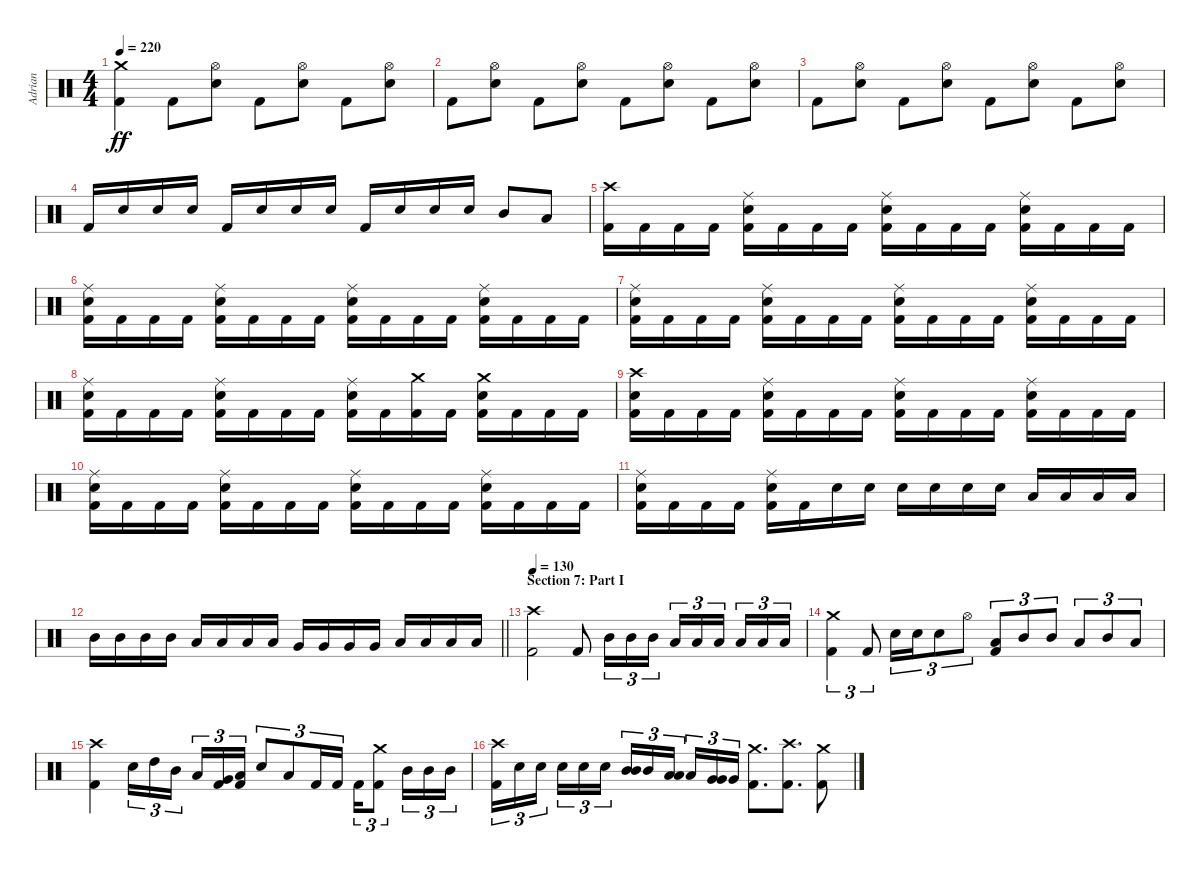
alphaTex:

\track ("Adrian" "Adrian") {instrument percussion}
\staff {score}
\articulation defaults
\ts (4 4)
\tempo 220
\clef neutral
\ks c
("Crash medium (hit)" "Kick (hit) 2").4{dy ff} "Kick (hit) 2".8 ("Hi-Hat (open)" "Electric Snare (hit)").8 "Kick (hit) 2".8 ("Hi-Hat (open)" "Electric Snare (hit)").8 "Kick (hit) 2".8 ("Hi-Hat (open)" "Electric Snare (hit)").8 |
"Kick (hit) 2".8 ("Hi-Hat (open)" "Electric Snare (hit)").8 "Kick (hit) 2".8 ("Hi-Hat (open)" "Electric Snare (hit)").8 "Kick (hit) 2".8 ("Hi-Hat (open)" "Electric Snare (hit)").8 "Kick (hit) 2".8 ("Hi-Hat (open)" "Electric Snare (hit)").8 |
"Kick (hit) 2".8 ("Hi-Hat (open)" "Electric Snare (hit)").8 "Kick (hit) 2".8 ("Hi-Hat (open)" "Electric Snare (hit)").8 "Kick (hit) 2".8 ("Hi-Hat (open)" "Electric Snare (hit)").8 "Kick (hit) 2".8 ("Hi-Hat (open)" "Electric Snare (hit)").8 |
"Kick (hit) 2".16 "Electric Snare (hit)".16 "Electric Snare (hit)".16 "Electric Snare (hit)".16 "Kick (hit) 2".16 "Electric Snare (hit)".16 "Electric Snare (hit)".16 "Electric Snare (hit)".16 "Kick (hit) 2".16 "Electric Snare (hit)".16 "Electric Snare (hit)".16 "Electric Snare (hit)".16 "Mid Tom (hit)".8 "Low Tom (hit)".8 |
("Crash high (hit)" "Kick (hit) 2").16 "Kick (hit) 2".16 "Kick (hit) 2".16 "Kick (hit) 2".16 ("Ride (middle)" "Electric Snare (hit)" "Kick (hit) 2").16 "Kick (hit) 2".16 "Kick (hit) 2".16 "Kick (hit) 2".16 ("Ride (middle)" "Electric Snare (hit)" "Kick (hit) 2").16 "Kick (hit) 2".16 "Kick (hit) 2".16 "Kick (hit) 2".16 ("Ride (middle)" "Electric Snare (hit)" "Kick (hit) 2").16 "Kick (hit) 2".16 "Kick (hit) 2".16 "Kick (hit) 2".16 |
("Ride (middle)" "Electric Snare (hit)" "Kick (hit) 2").16 "Kick (hit) 2".16 "Kick (hit) 2".16 "Kick (hit) 2".16 ("Ride (middle)" "Electric Snare (hit)" "Kick (hit) 2").16 "Kick (hit) 2".16 "Kick (hit) 2".16 "Kick (hit) 2".16 ("Ride (middle)" "Electric Snare (hit)" "Kick (hit) 2").16 "Kick (hit) 2".16 "Kick (hit) 2".16 "Kick (hit) 2".16 ("Ride (middle)" "Electric Snare (hit)" "Kick (hit) 2").16 "Kick (hit) 2".16 "Kick (hit) 2".16 "Kick (hit) 2".16 |
("Ride (middle)" "Electric Snare (hit)" "Kick (hit) 2").16 "Kick (hit) 2".16 "Kick (hit) 2".16 "Kick (hit) 2".16 ("Ride (middle)" "Electric Snare (hit)" "Kick (hit) 2").16 "Kick (hit) 2".16 "Kick (hit) 2".16 "Kick (hit) 2".16 ("Ride (middle)" "Electric Snare (hit)" "Kick (hit) 2").16 "Kick (hit) 2".16 "Kick (hit) 2".16 "Kick (hit) 2".16 ("Ride (middle)" "Electric Snare (hit)" "Kick (hit) 2").16 "Kick (hit) 2".16 "Kick (hit) 2".16 "Kick (hit) 2".16 |
("Ride (middle)" "Electric Snare (hit)" "Kick (hit) 2").16 "Kick (hit) 2".16 "Kick (hit) 2".16 "Kick (hit) 2".16 ("Ride (middle)" "Electric Snare (hit)" "Kick (hit) 2").16 "Kick (hit) 2".16 "Kick (hit) 2".16 "Kick (hit) 2".16 ("Ride (middle)" "Electric Snare (hit)" "Kick (hit) 2").16 "Kick (hit) 2".16 ("Crash medium (hit)" "Kick (hit) 2").16 "Kick (hit) 2".16 ("Crash medium (hit)" "Electric Snare (hit)" "Kick (hit) 2").16 "Kick (hit) 2".16 "Kick (hit) 2".16 "Kick (hit) 2".16 |
("Crash high (hit)" "Electric Snare (hit)" "Kick (hit) 2").16 "Kick (hit) 2".16 "Kick (hit) 2".16 "Kick (hit) 2".16 ("Ride (middle)" "Electric Snare (hit)" "Kick (hit) 2").16 "Kick (hit) 2".16 "Kick (hit) 2".16 "Kick (hit) 2".16 ("Ride (middle)" "Electric Snare (hit)" "Kick (hit) 2").16 "Kick (hit) 2".16 "Kick (hit) 2".16 "Kick (hit) 2".16 ("Ride (middle)" "Electric Snare (hit)" "Kick (hit) 2").16 "Kick (hit) 2".16 "Kick (hit) 2".16 "Kick (hit) 2".16 |
("Ride (middle)" "Electric Snare (hit)" "Kick (hit) 2").16 "Kick (hit) 2".16 "Kick (hit) 2".16 "Kick (hit) 2".16 ("Ride (middle)" "Electric Snare (hit)" "Kick (hit) 2").16 "Kick (hit) 2".16 "Kick (hit) 2".16 "Kick (hit) 2".16 ("Ride (middle)" "Electric Snare (hit)" "Kick (hit) 2").16 "Kick (hit) 2".16 "Kick (hit) 2".16 "Kick (hit) 2".16 ("Ride (middle)" "Electric Snare (hit)" "Kick (hit) 2").16 "Kick (hit) 2".16 "Kick (hit) 2".16 "Kick (hit) 2".16 |
("Ride (middle)" "Electric Snare (hit)" "Kick (hit) 2").16 "Kick (hit) 2".16 "Kick (hit) 2".16 "Kick (hit) 2".16 ("Ride (middle)" "Electric Snare (hit)" "Kick (hit) 2").16 "Kick (hit) 2".16 "Electric Snare (hit)".16 "Electric Snare (hit)".16 "Electric Snare (hit)".16 "Electric Snare (hit)".16 "Electric Snare (hit)".16 "Electric Snare (hit)".16 "Low Tom (hit)".16 "Low Tom (hit)".16 "Low Tom (hit)".16 "Low Tom (hit)".16 |
\barLineRight lightlight "Mid Tom (hit)".16 "Mid Tom (hit)".16 "Mid Tom (hit)".16 "Mid Tom (hit)".16 "Low Tom (hit)".16 "Low Tom (hit)".16 "Low Tom (hit)".16 "Low Tom (hit)".16 "Very Low Tom (hit)".16 "Very Low Tom (hit)".16 "Very Low Tom (hit)".16 "Very Low Tom (hit)".16 "Low Floor Tom (hit)".16 "Low Floor Tom (hit)".16 "Low Floor Tom (hit)".16 "Low Floor Tom (hit)".16
|
\section ("" "Section 7: Part I")
\tempo 130
("Crash high (hit)" "Kick (hit) 2").2 "Kick (hit) 2".8 "Mid Tom (hit)".16{tu (3 2)} "Mid Tom (hit)".16{tu (3 2)} "Mid Tom (hit)".16{tu (3 2)} "Low Floor Tom (hit)".16{tu (3 2)} "Low Floor Tom (hit)".16{tu (3 2)} "Low Floor Tom (hit)".16{tu (3 2) beam splitsecondary} "Low Tom (hit)".16{tu (3 2)} "Low Tom (hit)".16{tu (3 2)} "Low Tom (hit)".16{tu (3 2)} |
("Crash medium (hit)" "Kick (hit) 2").4{tu (3 2)} "Kick (hit) 2".8{tu (3 2)} "Electric Snare (hit)".16{tu (3 2)} "Electric Snare (hit)".16{tu (3 2)} "Electric Snare (hit)".8{tu (3 2)} "Hi-Hat (open)".8{tu (3 2)} ("Low Floor Tom (hit)" "Kick (hit) 2").8{tu (3 2)} "Mid Tom (hit)".8{tu (3 2)} "Mid Tom (hit)".8{tu (3 2)} "Low Tom (hit)".8{tu (3 2)} "Mid Tom (hit)".8{tu (3 2)} "Low Tom (hit)".8{tu (3 2)} |
("Crash high (hit)" "Kick (hit) 2").4 "Electric Snare (hit)".16{tu (3 2)} "High Tom (hit)".16{tu (3 2)} "Mid Tom (hit)".16{tu (3 2) beam splitsecondary} "Low Tom (hit)".16{tu (3 2)} ("Very Low Tom (hit)" "Kick (hit) 2").16{tu (3 2)} ("Low Floor Tom (hit)" "Kick (hit) 2").16{tu (3 2)} "Electric Snare (hit)".8{tu (3 2)} "Low Tom (hit)".8{tu (3 2)} "Kick (hit) 2".16{tu (3 2)} "Kick (hit) 2".16{tu (3 2)} "Kick (hit) 2".16{tu (3 2)} ("Crash medium (hit)" "Kick (hit) 2").8{tu (3 2)} "Mid Tom (hit)".16{tu (3 2)} "Mid Tom (hit)".16{tu (3 2)} "Mid Tom (hit)".16{tu (3 2)} |
("Crash high (hit)" "Kick (hit) 2").16{tu (3 2)} "Electric Snare (hit)".16{tu (3 2)} "Electric Snare (hit)".16{tu (3 2) beam splitsecondary} "Electric Snare (hit)".16{tu (3 2)} "Electric Snare (hit)".16{tu (3 2)} "Electric Snare (hit)".16{tu (3 2)} ("Mid Tom (hit)" "Mid Tom (hit)").16{tu (3 2)} "Mid Tom (hit)".16{tu (3 2)} ("Low Tom (hit)" "Low Tom (hit)").16{tu (3 2) beam splitsecondary} "Low Tom (hit)".16{tu (3 2)} ("Very Low Tom (hit)" "Very Low Tom (hit)").16{tu (3 2)} "Very Low Tom (hit)".16{tu (3 2)} ("Crash medium (hit)" "Kick (hit) 2").8{d} ("Crash high (hit)" "Kick (hit) 2").8{d} ("Crash medium (hit)" "Kick (hit) 2").8
